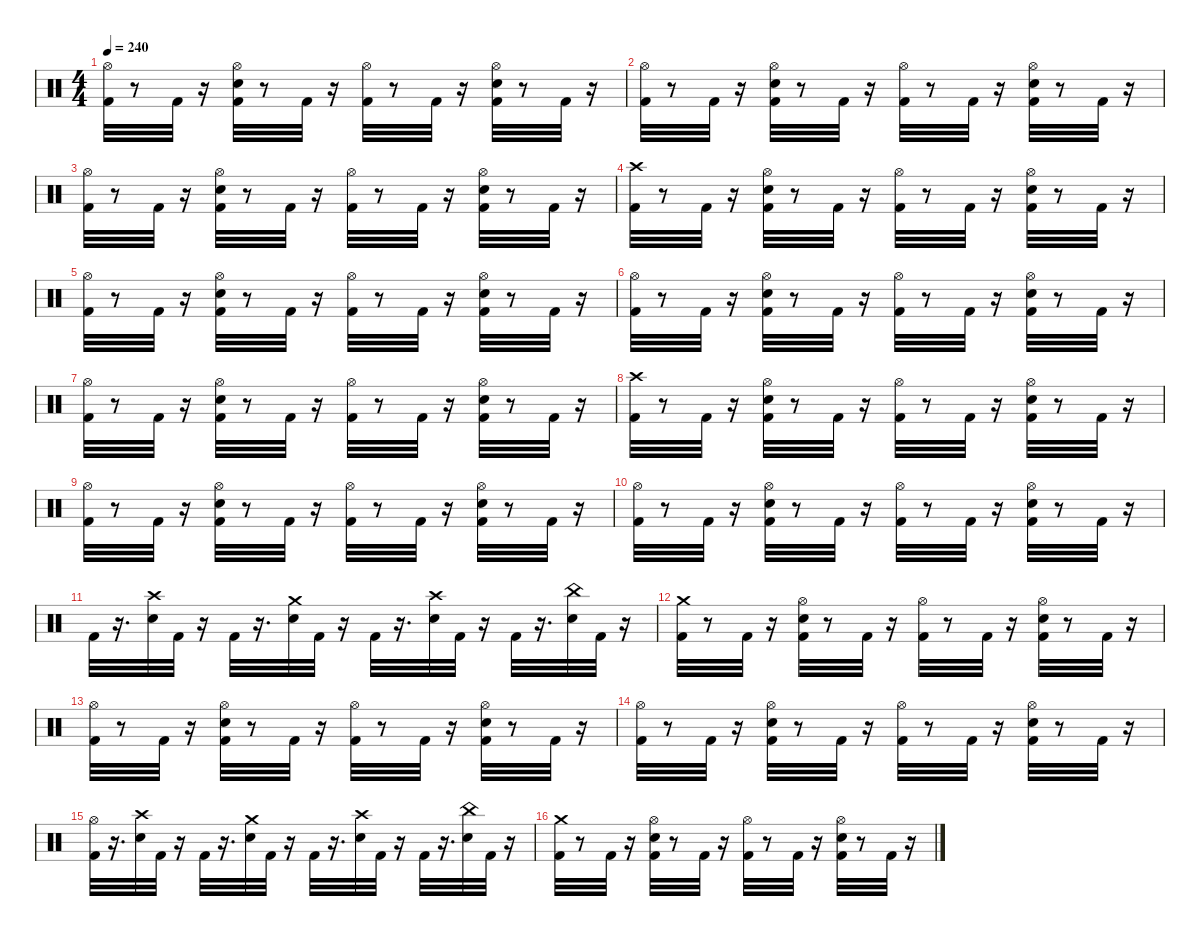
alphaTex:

\defaultSystemsLayout 4
\hideDynamics
\bracketExtendMode nobrackets
\singleTrackTrackNamePolicy hidden
\multiTrackTrackNamePolicy hidden
\otherSystemsTrackNameOrientation horizontal
\track ("Drums" "drm.") {instrument percussion}
\staff {score}
\articulation defaults
\ts (4 4)
\tempo 240
\clef neutral
\ks c
("Hi-Hat (open)" "Kick (hit) 2").32{dy f} r.8 "Kick (hit) 2".32 r.16 ("Kick (hit) 2" "Hi-Hat (open)" "Snare (hit) 2").32 r.8 "Kick (hit) 2".32 r.16 ("Hi-Hat (open)" "Kick (hit) 2").32 r.8 "Kick (hit) 2".32 r.16 ("Hi-Hat (open)" "Snare (hit) 2" "Kick (hit) 2").32 r.8 "Kick (hit) 2".32 r.16 |
("Kick (hit) 2" "Hi-Hat (open)").32 r.8 "Kick (hit) 2".32 r.16 ("Snare (hit) 2" "Hi-Hat (open)" "Kick (hit) 2").32 r.8 "Kick (hit) 2".32 r.16 ("Hi-Hat (open)" "Kick (hit) 2").32 r.8 "Kick (hit) 2".32 r.16 ("Snare (hit) 2" "Hi-Hat (open)" "Kick (hit) 2").32 r.8 "Kick (hit) 2".32 r.16 |
("Hi-Hat (open)" "Kick (hit) 2").32 r.8 "Kick (hit) 2".32 r.16 ("Snare (hit) 2" "Kick (hit) 2" "Hi-Hat (open)").32 r.8 "Kick (hit) 2".32 r.16 ("Kick (hit) 2" "Hi-Hat (open)").32 r.8 "Kick (hit) 2".32 r.16 ("Hi-Hat (open)" "Snare (hit) 2" "Kick (hit) 2").32 r.8 "Kick (hit) 2".32 r.16 |
("Crash high (hit)" "Kick (hit) 2").32 r.8 "Kick (hit) 2".32 r.16 ("Snare (hit) 2" "Hi-Hat (open)" "Kick (hit) 2").32 r.8 "Kick (hit) 2".32 r.16 ("Hi-Hat (open)" "Kick (hit) 2").32 r.8 "Kick (hit) 2".32 r.16 ("Kick (hit) 2" "Snare (hit) 2" "Hi-Hat (open)").32 r.8 "Kick (hit) 2".32 r.16 |
("Hi-Hat (open)" "Kick (hit) 2").32 r.8 "Kick (hit) 2".32 r.16 ("Hi-Hat (open)" "Snare (hit) 2" "Kick (hit) 2").32 r.8 "Kick (hit) 2".32 r.16 ("Hi-Hat (open)" "Kick (hit) 2").32 r.8 "Kick (hit) 2".32 r.16 ("Hi-Hat (open)" "Snare (hit) 2" "Kick (hit) 2").32 r.8 "Kick (hit) 2".32 r.16 |
("Hi-Hat (open)" "Kick (hit) 2").32 r.8 "Kick (hit) 2".32 r.16 ("Snare (hit) 2" "Hi-Hat (open)" "Kick (hit) 2").32 r.8 "Kick (hit) 2".32 r.16 ("Kick (hit) 2" "Hi-Hat (open)").32 r.8 "Kick (hit) 2".32 r.16 ("Hi-Hat (open)" "Snare (hit) 2" "Kick (hit) 2").32 r.8 "Kick (hit) 2".32 r.16 |
("Hi-Hat (open)" "Kick (hit) 2").32 r.8 "Kick (hit) 2".32 r.16 ("Kick (hit) 2" "Hi-Hat (open)" "Snare (hit) 2").32 r.8 "Kick (hit) 2".32 r.16 ("Hi-Hat (open)" "Kick (hit) 2").32 r.8 "Kick (hit) 2".32 r.16 ("Hi-Hat (open)" "Kick (hit) 2" "Snare (hit) 2").32 r.8 "Kick (hit) 2".32 r.16 |
("Crash high (hit)" "Kick (hit) 2").32 r.8 "Kick (hit) 2".32 r.16 ("Hi-Hat (open)" "Snare (hit) 2" "Kick (hit) 2").32 r.8 "Kick (hit) 2".32 r.16 ("Hi-Hat (open)" "Kick (hit) 2").32 r.8 "Kick (hit) 2".32 r.16 ("Kick (hit) 2" "Hi-Hat (open)" "Snare (hit) 2").32 r.8 "Kick (hit) 2".32 r.16 |
("Hi-Hat (open)" "Kick (hit) 2").32 r.8 "Kick (hit) 2".32 r.16 ("Kick (hit) 2" "Snare (hit) 2" "Hi-Hat (open)").32 r.8 "Kick (hit) 2".32 r.16 ("Hi-Hat (open)" "Kick (hit) 2").32 r.8 "Kick (hit) 2".32 r.16 ("Kick (hit) 2" "Hi-Hat (open)" "Snare (hit) 2").32 r.8 "Kick (hit) 2".32 r.16 |
("Hi-Hat (open)" "Kick (hit) 2").32 r.8 "Kick (hit) 2".32 r.16 ("Kick (hit) 2" "Snare (hit) 2" "Hi-Hat (open)").32 r.8 "Kick (hit) 2".32 r.16 ("Hi-Hat (open)" "Kick (hit) 2").32 r.8 "Kick (hit) 2".32 r.16 ("Kick (hit) 2" "Snare (hit) 2" "Hi-Hat (open)").32 r.8 "Kick (hit) 2".32 r.16 |
"Kick (hit) 2".32 r.16{d} ("Crash high (hit)" "Snare (hit) 2").32 "Kick (hit) 2".32 r.16 "Kick (hit) 2".32 r.16{d} ("Snare (hit) 2" "Crash medium (hit)").32 "Kick (hit) 2".32 r.16 "Kick (hit) 2".32 r.16{d} ("Snare (hit) 2" "Crash high (hit)").32 "Kick (hit) 2".32 r.16 "Kick (hit) 2".32 r.16{d} ("China (hit)" "Snare (hit) 2").32 "Kick (hit) 2".32 r.16 |
("Crash medium (hit)" "Kick (hit) 2").32 r.8 "Kick (hit) 2".32 r.16 ("Snare (hit) 2" "Kick (hit) 2" "Hi-Hat (open)").32 r.8 "Kick (hit) 2".32 r.16 ("Hi-Hat (open)" "Kick (hit) 2").32 r.8 "Kick (hit) 2".32 r.16 ("Kick (hit) 2" "Hi-Hat (open)" "Snare (hit) 2").32 r.8 "Kick (hit) 2".32 r.16 |
("Hi-Hat (open)" "Kick (hit) 2").32 r.8 "Kick (hit) 2".32 r.16 ("Hi-Hat (open)" "Snare (hit) 2" "Kick (hit) 2").32 r.8 "Kick (hit) 2".32 r.16 ("Kick (hit) 2" "Hi-Hat (open)").32 r.8 "Kick (hit) 2".32 r.16 ("Kick (hit) 2" "Hi-Hat (open)" "Snare (hit) 2").32 r.8 "Kick (hit) 2".32 r.16 |
("Hi-Hat (open)" "Kick (hit) 2").32 r.8 "Kick (hit) 2".32 r.16 ("Kick (hit) 2" "Hi-Hat (open)" "Snare (hit) 2").32 r.8 "Kick (hit) 2".32 r.16 ("Kick (hit) 2" "Hi-Hat (open)").32 r.8 "Kick (hit) 2".32 r.16 ("Snare (hit) 2" "Hi-Hat (open)" "Kick (hit) 2").32 r.8 "Kick (hit) 2".32 r.16 |
("Kick (hit) 2" "Hi-Hat (open)").32 r.16{d} ("Crash high (hit)" "Snare (hit) 2").32 "Kick (hit) 2".32 r.16 "Kick (hit) 2".32 r.16{d} ("Crash medium (hit)" "Snare (hit) 2").32 "Kick (hit) 2".32 r.16 "Kick (hit) 2".32 r.16{d} ("Snare (hit) 2" "Crash high (hit)").32 "Kick (hit) 2".32 r.16 "Kick (hit) 2".32 r.16{d} ("China (hit)" "Snare (hit) 2").32 "Kick (hit) 2".32 r.16 |
("Crash medium (hit)" "Kick (hit) 2").32 r.8 "Kick (hit) 2".32 r.16 ("Snare (hit) 2" "Hi-Hat (open)" "Kick (hit) 2").32 r.8 "Kick (hit) 2".32 r.16 ("Hi-Hat (open)" "Kick (hit) 2").32 r.8 "Kick (hit) 2".32 r.16 ("Snare (hit) 2" "Hi-Hat (open)" "Kick (hit) 2").32 r.8 "Kick (hit) 2".32 r.16
